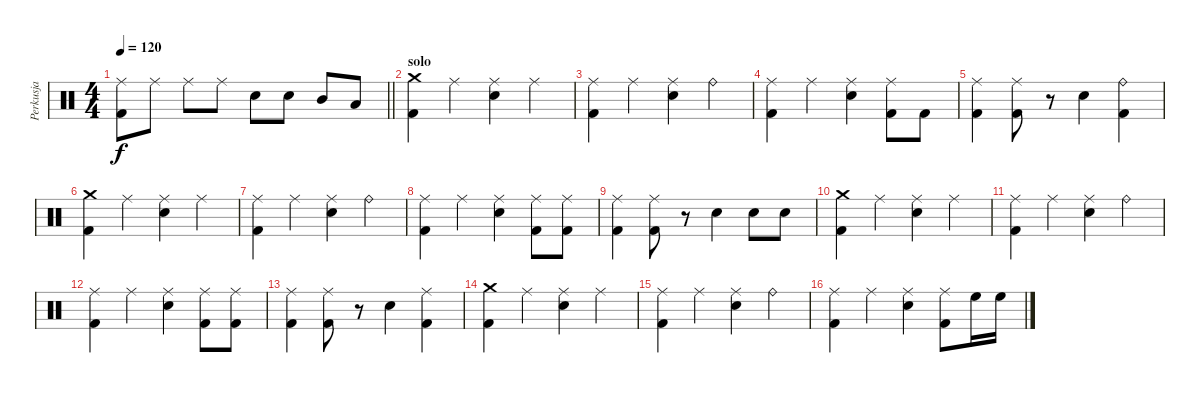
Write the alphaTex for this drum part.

\track ("Perkusja" "Perkusja") {instrument percussion}
\staff {score}
\articulation defaults
\ts (4 4)
\tempo 120
\clef neutral
\barLineRight lightlight
\ks c
("Ride (middle)" "Kick (hit) 2").8{dy f} "Ride (middle)".8 "Ride (middle)".8 "Ride (middle)".8 "Snare (hit) 2".8 "Snare (hit) 2".8 "Mid Tom (hit)".8 "Low Tom (hit)".8 |
\section ("" "solo")
("Crash medium (hit)" "Kick (hit) 2").4 "Ride (middle)".4 ("Ride (middle)" "Snare (hit) 2").4 "Ride (middle)".4 |
("Ride (middle)" "Kick (hit) 2").4 "Ride (middle)".4 ("Ride (middle)" "Snare (hit) 2").4 "Ride (bell)".4 |
("Ride (middle)" "Kick (hit) 2").4 "Ride (middle)".4 ("Ride (middle)" "Snare (hit) 2").4 ("Ride (middle)" "Kick (hit) 2").8 "Kick (hit) 2".8 |
("Ride (middle)" "Kick (hit) 2").4 ("Ride (middle)" "Kick (hit) 2").8 r.8 "Snare (hit) 2".4 ("Ride (bell)" "Kick (hit) 2").4 |
("Crash medium (hit)" "Kick (hit) 2").4 "Ride (middle)".4 ("Ride (middle)" "Snare (hit) 2").4 "Ride (middle)".4 |
("Ride (middle)" "Kick (hit) 2").4 "Ride (middle)".4 ("Ride (middle)" "Snare (hit) 2").4 "Ride (bell)".4 |
("Ride (middle)" "Kick (hit) 2").4 "Ride (middle)".4 ("Ride (middle)" "Snare (hit) 2").4 ("Ride (middle)" "Kick (hit) 2").8 ("Ride (middle)" "Kick (hit) 2").8 |
("Ride (middle)" "Kick (hit) 2").4 ("Ride (middle)" "Kick (hit) 2").8 r.8 "Snare (hit) 2".4 "Snare (hit) 2".8 "Snare (hit) 2".8 |
("Crash medium (hit)" "Kick (hit) 2").4 "Ride (middle)".4 ("Ride (middle)" "Snare (hit) 2").4 "Ride (middle)".4 |
("Ride (middle)" "Kick (hit) 2").4 "Ride (middle)".4 ("Ride (middle)" "Snare (hit) 2").4 "Ride (bell)".4 |
("Ride (middle)" "Kick (hit) 2").4 "Ride (middle)".4 ("Ride (middle)" "Snare (hit) 2").4 ("Ride (middle)" "Kick (hit) 2").8 ("Ride (middle)" "Kick (hit) 2").8 |
("Ride (middle)" "Kick (hit) 2").4 ("Ride (middle)" "Kick (hit) 2").8 r.8 "Snare (hit) 2".4 ("Ride (middle)" "Kick (hit) 2").4 |
("Crash medium (hit)" "Kick (hit) 2").4 "Ride (middle)".4 ("Ride (middle)" "Snare (hit) 2").4 "Ride (middle)".4 |
("Ride (middle)" "Kick (hit) 2").4 "Ride (middle)".4 ("Ride (middle)" "Snare (hit) 2").4 "Ride (bell)".4 |
("Ride (middle)" "Kick (hit) 2").4 "Ride (middle)".4 ("Ride (middle)" "Snare (hit) 2").4 ("Ride (middle)" "Kick (hit) 2").8 "High Floor Tom (hit)".16 "High Floor Tom (hit)".16
